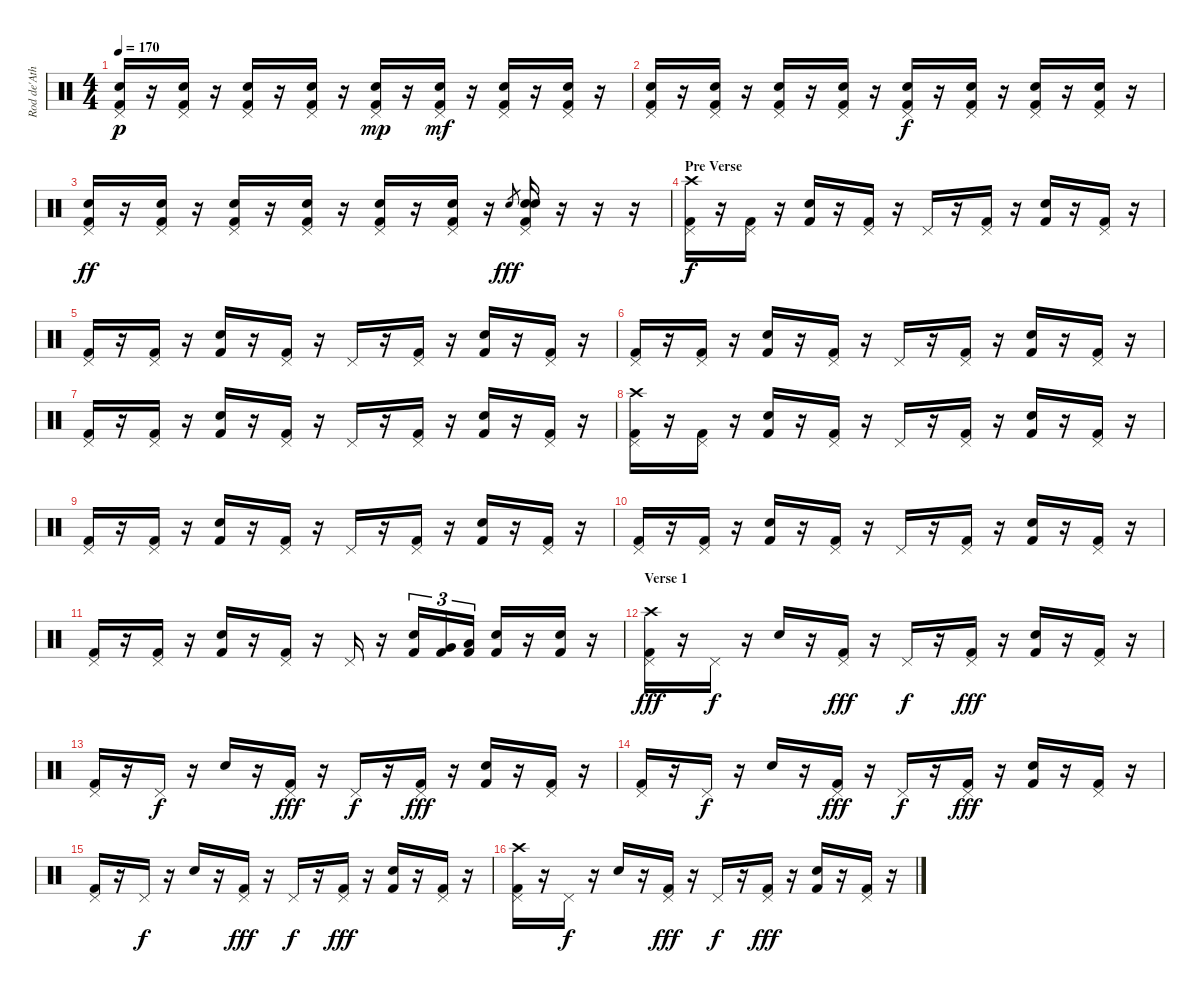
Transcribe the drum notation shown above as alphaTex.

\track ("Rod de'Ath" "Rod de'Ath") {instrument percussion}
\staff {score}
\articulation defaults
\ts (4 4)
\tempo 170
\clef neutral
\ks c
("Pedal Hi-Hat (hit)" "Snare (hit) 2" "Kick (hit) 2").16{dy p} r.16 ("Pedal Hi-Hat (hit)" "Snare (hit) 2" "Kick (hit) 2").16 r.16 ("Pedal Hi-Hat (hit)" "Snare (hit) 2" "Kick (hit) 2").16 r.16 ("Pedal Hi-Hat (hit)" "Snare (hit) 2" "Kick (hit) 2").16 r.16 ("Pedal Hi-Hat (hit)" "Snare (hit) 2" "Kick (hit) 2").16{dy mp} r.16 ("Pedal Hi-Hat (hit)" "Snare (hit) 2" "Kick (hit) 2").16{dy mf} r.16 ("Pedal Hi-Hat (hit)" "Snare (hit) 2" "Kick (hit) 2").16 r.16 ("Pedal Hi-Hat (hit)" "Snare (hit) 2" "Kick (hit) 2").16 r.16 |
("Pedal Hi-Hat (hit)" "Snare (hit) 2" "Kick (hit) 2").16 r.16 ("Pedal Hi-Hat (hit)" "Snare (hit) 2" "Kick (hit) 2").16 r.16 ("Pedal Hi-Hat (hit)" "Snare (hit) 2" "Kick (hit) 2").16 r.16 ("Pedal Hi-Hat (hit)" "Snare (hit) 2" "Kick (hit) 2").16 r.16 ("Pedal Hi-Hat (hit)" "Snare (hit) 2" "Kick (hit) 2").16{dy f} r.16 ("Pedal Hi-Hat (hit)" "Snare (hit) 2" "Kick (hit) 2").16 r.16 ("Pedal Hi-Hat (hit)" "Snare (hit) 2" "Kick (hit) 2").16 r.16 ("Pedal Hi-Hat (hit)" "Snare (hit) 2" "Kick (hit) 2").16 r.16 |
("Pedal Hi-Hat (hit)" "Snare (hit) 2" "Kick (hit) 2").16{dy ff} r.16 ("Pedal Hi-Hat (hit)" "Snare (hit) 2" "Kick (hit) 2").16 r.16 ("Pedal Hi-Hat (hit)" "Snare (hit) 2" "Kick (hit) 2").16 r.16 ("Pedal Hi-Hat (hit)" "Snare (hit) 2" "Kick (hit) 2").16 r.16 ("Pedal Hi-Hat (hit)" "Snare (hit) 2" "Kick (hit) 2").16 r.16 ("Pedal Hi-Hat (hit)" "Snare (hit) 2" "Kick (hit) 2").16 r.16 "Electric Snare (hit)".8{gr dy fff} ("Pedal Hi-Hat (hit)" "Snare (hit) 2" "Electric Snare (hit)" "Kick (hit) 2").16 r.16 r.16 r.16 |
\section ("" "Pre Verse")
("Crash high (hit)" "Pedal Hi-Hat (hit)" "Kick (hit) 2").16{dy f} r.16 ("Pedal Hi-Hat (hit)" "Kick (hit) 2").16 r.16 ("Electric Snare (hit)" "Kick (hit) 2").16 r.16 ("Pedal Hi-Hat (hit)" "Kick (hit) 2").16 r.16 "Pedal Hi-Hat (hit)".16 r.16 ("Pedal Hi-Hat (hit)" "Kick (hit) 2").16 r.16 ("Electric Snare (hit)" "Kick (hit) 2").16 r.16 ("Pedal Hi-Hat (hit)" "Kick (hit) 2").16 r.16 |
("Pedal Hi-Hat (hit)" "Kick (hit) 2").16 r.16 ("Pedal Hi-Hat (hit)" "Kick (hit) 2").16 r.16 ("Snare (hit) 2" "Kick (hit) 2").16 r.16 ("Pedal Hi-Hat (hit)" "Kick (hit) 2").16 r.16 "Pedal Hi-Hat (hit)".16 r.16 ("Pedal Hi-Hat (hit)" "Kick (hit) 2").16 r.16 ("Electric Snare (hit)" "Kick (hit) 2").16 r.16 ("Pedal Hi-Hat (hit)" "Kick (hit) 2").16 r.16 |
("Pedal Hi-Hat (hit)" "Kick (hit) 2").16 r.16 ("Pedal Hi-Hat (hit)" "Kick (hit) 2").16 r.16 ("Snare (hit) 2" "Kick (hit) 2").16 r.16 ("Pedal Hi-Hat (hit)" "Kick (hit) 2").16 r.16 "Pedal Hi-Hat (hit)".16 r.16 ("Pedal Hi-Hat (hit)" "Kick (hit) 2").16 r.16 ("Electric Snare (hit)" "Kick (hit) 2").16 r.16 ("Pedal Hi-Hat (hit)" "Kick (hit) 2").16 r.16 |
("Pedal Hi-Hat (hit)" "Kick (hit) 2").16 r.16 ("Pedal Hi-Hat (hit)" "Kick (hit) 2").16 r.16 ("Snare (hit) 2" "Kick (hit) 2").16 r.16 ("Pedal Hi-Hat (hit)" "Kick (hit) 2").16 r.16 "Pedal Hi-Hat (hit)".16 r.16 ("Pedal Hi-Hat (hit)" "Kick (hit) 2").16 r.16 ("Electric Snare (hit)" "Kick (hit) 2").16 r.16 ("Pedal Hi-Hat (hit)" "Kick (hit) 2").16 r.16 |
("Crash high (hit)" "Pedal Hi-Hat (hit)" "Kick (hit) 2").16 r.16 ("Pedal Hi-Hat (hit)" "Kick (hit) 2").16 r.16 ("Snare (hit) 2" "Kick (hit) 2").16 r.16 ("Pedal Hi-Hat (hit)" "Kick (hit) 2").16 r.16 "Pedal Hi-Hat (hit)".16 r.16 ("Pedal Hi-Hat (hit)" "Kick (hit) 2").16 r.16 ("Electric Snare (hit)" "Kick (hit) 2").16 r.16 ("Pedal Hi-Hat (hit)" "Kick (hit) 2").16 r.16 |
("Pedal Hi-Hat (hit)" "Kick (hit) 2").16 r.16 ("Pedal Hi-Hat (hit)" "Kick (hit) 2").16 r.16 ("Snare (hit) 2" "Kick (hit) 2").16 r.16 ("Pedal Hi-Hat (hit)" "Kick (hit) 2").16 r.16 "Pedal Hi-Hat (hit)".16 r.16 ("Pedal Hi-Hat (hit)" "Kick (hit) 2").16 r.16 ("Electric Snare (hit)" "Kick (hit) 2").16 r.16 ("Pedal Hi-Hat (hit)" "Kick (hit) 2").16 r.16 |
("Pedal Hi-Hat (hit)" "Kick (hit) 2").16 r.16 ("Pedal Hi-Hat (hit)" "Kick (hit) 2").16 r.16 ("Snare (hit) 2" "Kick (hit) 2").16 r.16 ("Pedal Hi-Hat (hit)" "Kick (hit) 2").16 r.16 "Pedal Hi-Hat (hit)".16 r.16 ("Pedal Hi-Hat (hit)" "Kick (hit) 2").16 r.16 ("Electric Snare (hit)" "Kick (hit) 2").16 r.16 ("Pedal Hi-Hat (hit)" "Kick (hit) 2").16 r.16 |
("Pedal Hi-Hat (hit)" "Kick (hit) 2").16 r.16 ("Pedal Hi-Hat (hit)" "Kick (hit) 2").16 r.16 ("Snare (hit) 2" "Kick (hit) 2").16 r.16 ("Pedal Hi-Hat (hit)" "Kick (hit) 2").16 r.16 "Pedal Hi-Hat (hit)".16 r.16 ("Snare (hit) 2" "Kick (hit) 2").16{tu (3 2)} ("Very Low Tom (hit)" "Kick (hit) 2").16{tu (3 2)} ("Low Tom (hit)" "Kick (hit) 2").16{tu (3 2)} ("Electric Snare (hit)" "Kick (hit) 2").16 r.16 ("Electric Snare (hit)" "Kick (hit) 2").16 r.16 |
\section ("" "Verse 1")
("Crash high (hit)" "Pedal Hi-Hat (hit)" "Kick (hit) 2").16{dy fff} r.16 "Pedal Hi-Hat (hit)".16{dy f} r.16 "Snare (hit) 2".16 r.16 ("Pedal Hi-Hat (hit)" "Kick (hit) 2").16{dy fff} r.16 "Pedal Hi-Hat (hit)".16{dy f} r.16 ("Pedal Hi-Hat (hit)" "Kick (hit) 2").16{dy fff} r.16 ("Electric Snare (hit)" "Kick (hit) 2").16 r.16 ("Pedal Hi-Hat (hit)" "Kick (hit) 2").16 r.16 |
("Pedal Hi-Hat (hit)" "Kick (hit) 2").16 r.16 "Pedal Hi-Hat (hit)".16{dy f} r.16 "Snare (hit) 2".16 r.16 ("Pedal Hi-Hat (hit)" "Kick (hit) 2").16{dy fff} r.16 "Pedal Hi-Hat (hit)".16{dy f} r.16 ("Pedal Hi-Hat (hit)" "Kick (hit) 2").16{dy fff} r.16 ("Electric Snare (hit)" "Kick (hit) 2").16 r.16 ("Pedal Hi-Hat (hit)" "Kick (hit) 2").16 r.16 |
("Pedal Hi-Hat (hit)" "Kick (hit) 2").16 r.16 "Pedal Hi-Hat (hit)".16{dy f} r.16 "Snare (hit) 2".16 r.16 ("Pedal Hi-Hat (hit)" "Kick (hit) 2").16{dy fff} r.16 "Pedal Hi-Hat (hit)".16{dy f} r.16 ("Pedal Hi-Hat (hit)" "Kick (hit) 2").16{dy fff} r.16 ("Electric Snare (hit)" "Kick (hit) 2").16 r.16 ("Pedal Hi-Hat (hit)" "Kick (hit) 2").16 r.16 |
("Pedal Hi-Hat (hit)" "Kick (hit) 2").16 r.16 "Pedal Hi-Hat (hit)".16{dy f} r.16 "Snare (hit) 2".16 r.16 ("Pedal Hi-Hat (hit)" "Kick (hit) 2").16{dy fff} r.16 "Pedal Hi-Hat (hit)".16{dy f} r.16 ("Pedal Hi-Hat (hit)" "Kick (hit) 2").16{dy fff} r.16 ("Electric Snare (hit)" "Kick (hit) 2").16 r.16 ("Pedal Hi-Hat (hit)" "Kick (hit) 2").16 r.16 |
("Crash high (hit)" "Pedal Hi-Hat (hit)" "Kick (hit) 2").16 r.16 "Pedal Hi-Hat (hit)".16{dy f} r.16 "Snare (hit) 2".16 r.16 ("Pedal Hi-Hat (hit)" "Kick (hit) 2").16{dy fff} r.16 "Pedal Hi-Hat (hit)".16{dy f} r.16 ("Pedal Hi-Hat (hit)" "Kick (hit) 2").16{dy fff} r.16 ("Electric Snare (hit)" "Kick (hit) 2").16 r.16 ("Pedal Hi-Hat (hit)" "Kick (hit) 2").16 r.16
